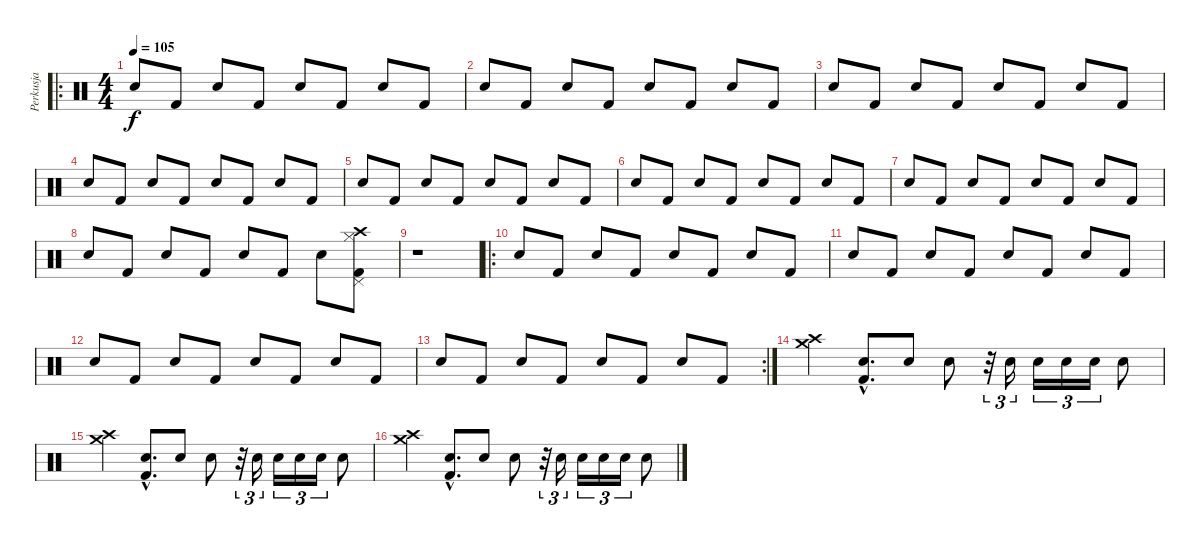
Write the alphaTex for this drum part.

\track ("Perkusja" "Perkusja") {instrument percussion}
\staff {score}
\articulation defaults
\ro
\ts (4 4)
\tempo 105
\clef neutral
\ks c "Electric Snare (hit)".8{dy f} "Kick (hit) 2".8 "Electric Snare (hit)".8 "Kick (hit) 2".8 "Electric Snare (hit)".8 "Kick (hit) 2".8 "Electric Snare (hit)".8 "Kick (hit) 2".8
|
"Electric Snare (hit)".8 "Kick (hit) 2".8 "Electric Snare (hit)".8 "Kick (hit) 2".8 "Electric Snare (hit)".8 "Kick (hit) 2".8 "Electric Snare (hit)".8 "Kick (hit) 2".8 |
"Electric Snare (hit)".8 "Kick (hit) 2".8 "Electric Snare (hit)".8 "Kick (hit) 2".8 "Electric Snare (hit)".8 "Kick (hit) 2".8 "Electric Snare (hit)".8 "Kick (hit) 2".8 |
"Electric Snare (hit)".8 "Kick (hit) 2".8 "Electric Snare (hit)".8 "Kick (hit) 2".8 "Electric Snare (hit)".8 "Kick (hit) 2".8 "Electric Snare (hit)".8 "Kick (hit) 2".8 |
"Electric Snare (hit)".8 "Kick (hit) 2".8 "Electric Snare (hit)".8 "Kick (hit) 2".8 "Electric Snare (hit)".8 "Kick (hit) 2".8 "Electric Snare (hit)".8 "Kick (hit) 2".8 |
"Electric Snare (hit)".8 "Kick (hit) 2".8 "Electric Snare (hit)".8 "Kick (hit) 2".8 "Electric Snare (hit)".8 "Kick (hit) 2".8 "Electric Snare (hit)".8 "Kick (hit) 2".8 |
"Electric Snare (hit)".8 "Kick (hit) 2".8 "Electric Snare (hit)".8 "Kick (hit) 2".8 "Electric Snare (hit)".8 "Kick (hit) 2".8 "Electric Snare (hit)".8 "Kick (hit) 2".8 |
"Electric Snare (hit)".8 "Kick (hit) 2".8 "Electric Snare (hit)".8 "Kick (hit) 2".8 "Electric Snare (hit)".8 "Kick (hit) 2".8 "Electric Snare (hit)".8 ("Hi-Hat (closed)" "Pedal Hi-Hat (hit)" "Crash high (hit)" "Kick (hit) 2").8 |
r.1 |
\ro "Electric Snare (hit)".8 "Kick (hit) 2".8 "Electric Snare (hit)".8 "Kick (hit) 2".8 "Electric Snare (hit)".8 "Kick (hit) 2".8 "Electric Snare (hit)".8 "Kick (hit) 2".8
|
"Electric Snare (hit)".8 "Kick (hit) 2".8 "Electric Snare (hit)".8 "Kick (hit) 2".8 "Electric Snare (hit)".8 "Kick (hit) 2".8 "Electric Snare (hit)".8 "Kick (hit) 2".8 |
"Electric Snare (hit)".8 "Kick (hit) 2".8 "Electric Snare (hit)".8 "Kick (hit) 2".8 "Electric Snare (hit)".8 "Kick (hit) 2".8 "Electric Snare (hit)".8 "Kick (hit) 2".8 |
\rc 2 "Electric Snare (hit)".8 "Kick (hit) 2".8 "Electric Snare (hit)".8 "Kick (hit) 2".8 "Electric Snare (hit)".8 "Kick (hit) 2".8 "Electric Snare (hit)".8 "Kick (hit) 2".8
|
("Crash high (hit)" "Crash medium (hit)").4 ("Kick (hit) 2"{hac} "Electric Snare (hit)"{hac}).8{d} "Electric Snare (hit)".8 "Electric Snare (hit)".8 r.32{tu (3 2)} "Electric Snare (hit)".16{tu (3 2)} "Electric Snare (hit)".16{tu (3 2)} "Electric Snare (hit)".16{tu (3 2)} "Electric Snare (hit)".16{tu (3 2)} "Electric Snare (hit)".8 |
("Crash high (hit)" "Crash medium (hit)").4 ("Kick (hit) 2"{hac} "Electric Snare (hit)"{hac}).8{d} "Electric Snare (hit)".8 "Electric Snare (hit)".8 r.32{tu (3 2)} "Electric Snare (hit)".16{tu (3 2)} "Electric Snare (hit)".16{tu (3 2)} "Electric Snare (hit)".16{tu (3 2)} "Electric Snare (hit)".16{tu (3 2)} "Electric Snare (hit)".8 |
("Crash high (hit)" "Crash medium (hit)").4 ("Kick (hit) 2"{hac} "Electric Snare (hit)"{hac}).8{d} "Electric Snare (hit)".8 "Electric Snare (hit)".8 r.32{tu (3 2)} "Electric Snare (hit)".16{tu (3 2)} "Electric Snare (hit)".16{tu (3 2)} "Electric Snare (hit)".16{tu (3 2)} "Electric Snare (hit)".16{tu (3 2)} "Electric Snare (hit)".8
